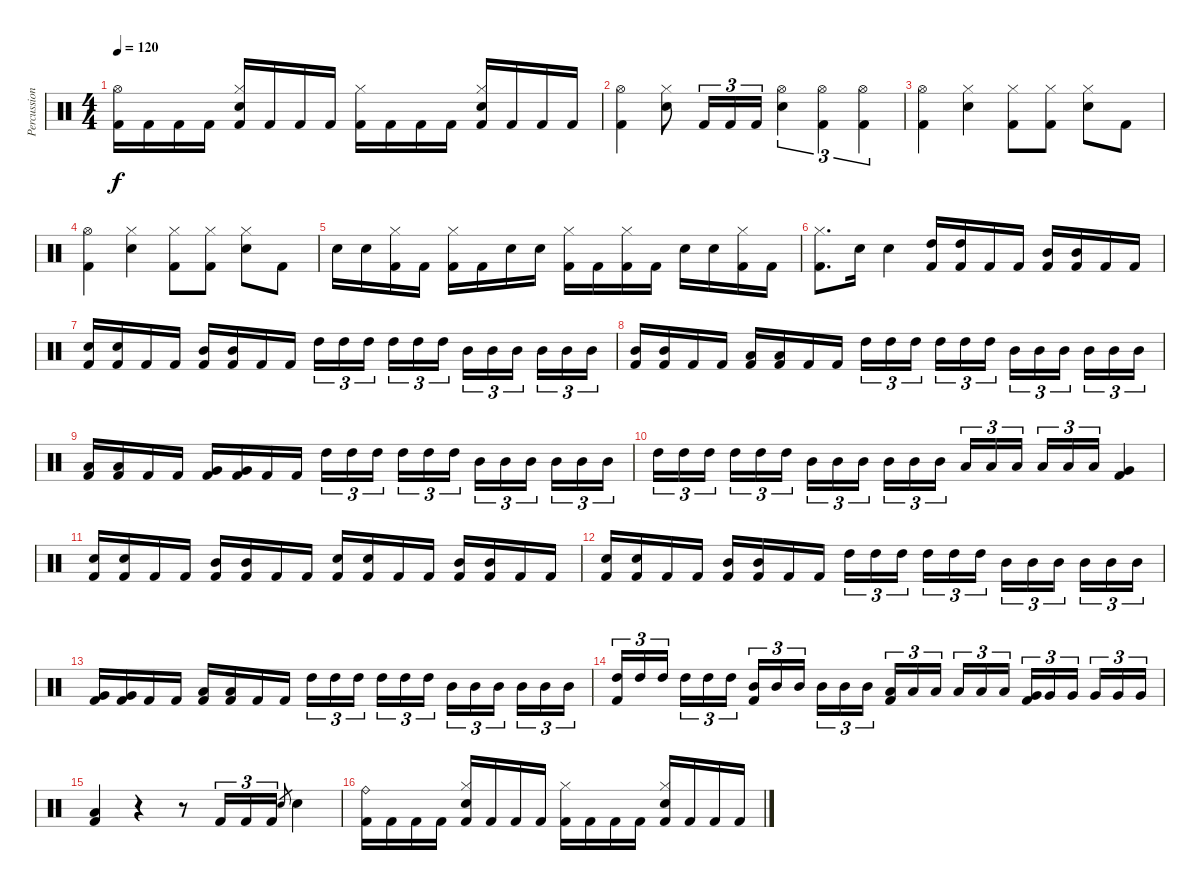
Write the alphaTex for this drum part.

\track ("Percussions" "Percussion") {instrument percussion}
\staff {score}
\articulation defaults
\ts (4 4)
\tempo 120
\clef neutral
\ks c
("Hi-Hat (open)" "Kick (hit) 2").16{dy f} "Kick (hit) 2".16 "Kick (hit) 2".16 "Kick (hit) 2".16 ("Hi-Hat (closed)" "Snare (hit) 2" "Kick (hit) 2").16 "Kick (hit) 2".16 "Kick (hit) 2".16 "Kick (hit) 2".16 ("Hi-Hat (closed)" "Kick (hit) 2").16 "Kick (hit) 2".16 "Kick (hit) 2".16 "Kick (hit) 2".16 ("Hi-Hat (closed)" "Snare (hit) 2" "Kick (hit) 2").16 "Kick (hit) 2".16 "Kick (hit) 2".16 "Kick (hit) 2".16 |
("Hi-Hat (open)" "Kick (hit) 2").4 ("Hi-Hat (closed)" "Snare (hit) 2").8 "Kick (hit) 2".16{tu (3 2)} "Kick (hit) 2".16{tu (3 2)} "Kick (hit) 2".16{tu (3 2)} ("Hi-Hat (open)" "Snare (hit) 2").4{tu (3 2)} ("Hi-Hat (open)" "Kick (hit) 2").4{tu (3 2)} ("Hi-Hat (open)" "Kick (hit) 2").4{tu (3 2)} |
("Hi-Hat (open)" "Kick (hit) 2").4 ("Hi-Hat (closed)" "Snare (hit) 2").4 ("Hi-Hat (closed)" "Kick (hit) 2").8 ("Hi-Hat (closed)" "Kick (hit) 2").8 ("Hi-Hat (closed)" "Snare (hit) 2").8 "Kick (hit) 2".8 |
("Hi-Hat (open)" "Kick (hit) 2").4 ("Hi-Hat (closed)" "Snare (hit) 2").4 ("Hi-Hat (closed)" "Kick (hit) 2").8 ("Hi-Hat (closed)" "Kick (hit) 2").8 ("Hi-Hat (closed)" "Snare (hit) 2").8 "Kick (hit) 2".8 |
"Snare (hit) 2".16 "Snare (hit) 2".16 ("Hi-Hat (closed)" "Kick (hit) 2").16 "Kick (hit) 2".16 ("Hi-Hat (closed)" "Kick (hit) 2").16 "Kick (hit) 2".16 "Snare (hit) 2".16 "Snare (hit) 2".16 ("Hi-Hat (closed)" "Kick (hit) 2").16 "Kick (hit) 2".16 ("Hi-Hat (closed)" "Kick (hit) 2").16 "Kick (hit) 2".16 "Snare (hit) 2".16 "Snare (hit) 2".16 ("Hi-Hat (closed)" "Kick (hit) 2").16 "Kick (hit) 2".16 |
("Hi-Hat (closed)" "Kick (hit) 2").8{d} "Snare (hit) 2".16 "Snare (hit) 2".4 ("High Tom (hit)" "Kick (hit) 2").16 ("High Tom (hit)" "Kick (hit) 2").16 "Kick (hit) 2".16 "Kick (hit) 2".16 ("Mid Tom (hit)" "Kick (hit) 2").16 ("Mid Tom (hit)" "Kick (hit) 2").16 "Kick (hit) 2".16 "Kick (hit) 2".16 |
("Snare (hit) 2" "Kick (hit) 2").16 ("Snare (hit) 2" "Kick (hit) 2").16 "Kick (hit) 2".16 "Kick (hit) 2".16 ("Mid Tom (hit)" "Kick (hit) 2").16 ("Mid Tom (hit)" "Kick (hit) 2").16 "Kick (hit) 2".16 "Kick (hit) 2".16 "High Tom (hit)".16{tu (3 2)} "High Tom (hit)".16{tu (3 2)} "High Tom (hit)".16{tu (3 2)} "High Tom (hit)".16{tu (3 2)} "High Tom (hit)".16{tu (3 2)} "High Tom (hit)".16{tu (3 2)} "Mid Tom (hit)".16{tu (3 2)} "Mid Tom (hit)".16{tu (3 2)} "Mid Tom (hit)".16{tu (3 2)} "Mid Tom (hit)".16{tu (3 2)} "Mid Tom (hit)".16{tu (3 2)} "Mid Tom (hit)".16{tu (3 2)} |
("Mid Tom (hit)" "Kick (hit) 2").16 ("Mid Tom (hit)" "Kick (hit) 2").16 "Kick (hit) 2".16 "Kick (hit) 2".16 ("Low Tom (hit)" "Kick (hit) 2").16 ("Low Tom (hit)" "Kick (hit) 2").16 "Kick (hit) 2".16 "Kick (hit) 2".16 "High Tom (hit)".16{tu (3 2)} "High Tom (hit)".16{tu (3 2)} "High Tom (hit)".16{tu (3 2)} "High Tom (hit)".16{tu (3 2)} "High Tom (hit)".16{tu (3 2)} "High Tom (hit)".16{tu (3 2)} "Mid Tom (hit)".16{tu (3 2)} "Mid Tom (hit)".16{tu (3 2)} "Mid Tom (hit)".16{tu (3 2)} "Mid Tom (hit)".16{tu (3 2)} "Mid Tom (hit)".16{tu (3 2)} "Mid Tom (hit)".16{tu (3 2)} |
("Low Tom (hit)" "Kick (hit) 2").16 ("Low Tom (hit)" "Kick (hit) 2").16 "Kick (hit) 2".16 "Kick (hit) 2".16 ("Very Low Tom (hit)" "Kick (hit) 2").16 ("Very Low Tom (hit)" "Kick (hit) 2").16 "Kick (hit) 2".16 "Kick (hit) 2".16 "High Tom (hit)".16{tu (3 2)} "High Tom (hit)".16{tu (3 2)} "High Tom (hit)".16{tu (3 2)} "High Tom (hit)".16{tu (3 2)} "High Tom (hit)".16{tu (3 2)} "High Tom (hit)".16{tu (3 2)} "Mid Tom (hit)".16{tu (3 2)} "Mid Tom (hit)".16{tu (3 2)} "Mid Tom (hit)".16{tu (3 2)} "Mid Tom (hit)".16{tu (3 2)} "Mid Tom (hit)".16{tu (3 2)} "Mid Tom (hit)".16{tu (3 2)} |
"High Tom (hit)".16{tu (3 2)} "High Tom (hit)".16{tu (3 2)} "High Tom (hit)".16{tu (3 2)} "High Tom (hit)".16{tu (3 2)} "High Tom (hit)".16{tu (3 2)} "High Tom (hit)".16{tu (3 2)} "Mid Tom (hit)".16{tu (3 2)} "Mid Tom (hit)".16{tu (3 2)} "Mid Tom (hit)".16{tu (3 2)} "Mid Tom (hit)".16{tu (3 2)} "Mid Tom (hit)".16{tu (3 2)} "Mid Tom (hit)".16{tu (3 2)} "Low Tom (hit)".16{tu (3 2)} "Low Tom (hit)".16{tu (3 2)} "Low Tom (hit)".16{tu (3 2)} "Low Tom (hit)".16{tu (3 2)} "Low Tom (hit)".16{tu (3 2)} "Low Tom (hit)".16{tu (3 2)} ("Very Low Tom (hit)" "Kick (hit) 2").4 |
("Snare (hit) 2" "Kick (hit) 2").16 ("Snare (hit) 2" "Kick (hit) 2").16 "Kick (hit) 2".16 "Kick (hit) 2".16 ("Mid Tom (hit)" "Kick (hit) 2").16 ("Mid Tom (hit)" "Kick (hit) 2").16 "Kick (hit) 2".16 "Kick (hit) 2".16 ("Snare (hit) 2" "Kick (hit) 2").16 ("Snare (hit) 2" "Kick (hit) 2").16 "Kick (hit) 2".16 "Kick (hit) 2".16 ("Mid Tom (hit)" "Kick (hit) 2").16 ("Mid Tom (hit)" "Kick (hit) 2").16 "Kick (hit) 2".16 "Kick (hit) 2".16 |
("Snare (hit) 2" "Kick (hit) 2").16 ("Snare (hit) 2" "Kick (hit) 2").16 "Kick (hit) 2".16 "Kick (hit) 2".16 ("Mid Tom (hit)" "Kick (hit) 2").16 ("Mid Tom (hit)" "Kick (hit) 2").16 "Kick (hit) 2".16 "Kick (hit) 2".16 "High Tom (hit)".16{tu (3 2)} "High Tom (hit)".16{tu (3 2)} "High Tom (hit)".16{tu (3 2)} "High Tom (hit)".16{tu (3 2)} "High Tom (hit)".16{tu (3 2)} "High Tom (hit)".16{tu (3 2)} "Mid Tom (hit)".16{tu (3 2)} "Mid Tom (hit)".16{tu (3 2)} "Mid Tom (hit)".16{tu (3 2)} "Mid Tom (hit)".16{tu (3 2)} "Mid Tom (hit)".16{tu (3 2)} "Mid Tom (hit)".16{tu (3 2)} |
("Very Low Tom (hit)" "Kick (hit) 2").16 ("Very Low Tom (hit)" "Kick (hit) 2").16 "Kick (hit) 2".16 "Kick (hit) 2".16 ("Low Floor Tom (hit)" "Kick (hit) 2").16 ("Low Floor Tom (hit)" "Kick (hit) 2").16 "Kick (hit) 2".16 "Kick (hit) 2".16 "High Tom (hit)".16{tu (3 2)} "High Tom (hit)".16{tu (3 2)} "High Tom (hit)".16{tu (3 2)} "High Tom (hit)".16{tu (3 2)} "High Tom (hit)".16{tu (3 2)} "High Tom (hit)".16{tu (3 2)} "Mid Tom (hit)".16{tu (3 2)} "Mid Tom (hit)".16{tu (3 2)} "Mid Tom (hit)".16{tu (3 2)} "Mid Tom (hit)".16{tu (3 2)} "Mid Tom (hit)".16{tu (3 2)} "Mid Tom (hit)".16{tu (3 2)} |
("High Tom (hit)" "Kick (hit) 2").16{tu (3 2)} "High Tom (hit)".16{tu (3 2)} "High Tom (hit)".16{tu (3 2)} "High Tom (hit)".16{tu (3 2)} "High Tom (hit)".16{tu (3 2)} "High Tom (hit)".16{tu (3 2)} ("Mid Tom (hit)" "Kick (hit) 2").16{tu (3 2)} "Mid Tom (hit)".16{tu (3 2)} "Mid Tom (hit)".16{tu (3 2)} "Mid Tom (hit)".16{tu (3 2)} "Mid Tom (hit)".16{tu (3 2)} "Mid Tom (hit)".16{tu (3 2)} ("Low Tom (hit)" "Kick (hit) 2").16{tu (3 2)} "Low Tom (hit)".16{tu (3 2)} "Low Tom (hit)".16{tu (3 2)} "Low Tom (hit)".16{tu (3 2)} "Low Tom (hit)".16{tu (3 2)} "Low Tom (hit)".16{tu (3 2)} ("Very Low Tom (hit)" "Kick (hit) 2").16{tu (3 2)} "Very Low Tom (hit)".16{tu (3 2)} "Very Low Tom (hit)".16{tu (3 2)} "Very Low Tom (hit)".16{tu (3 2)} "Very Low Tom (hit)".16{tu (3 2)} "Very Low Tom (hit)".16{tu (3 2)} |
("Low Floor Tom (hit)" "Kick (hit) 2").4 r.4 r.8 "Kick (hit) 2".16{tu (3 2)} "Kick (hit) 2".16{tu (3 2)} "Kick (hit) 2".16{tu (3 2)} "Snare (hit) 2".8{gr} "Snare (hit) 2".4 |
("Ride (bell)" "Kick (hit) 2").16 "Kick (hit) 2".16 "Kick (hit) 2".16 "Kick (hit) 2".16 ("Hi-Hat (closed)" "Snare (hit) 2" "Kick (hit) 2").16 "Kick (hit) 2".16 "Kick (hit) 2".16 "Kick (hit) 2".16 ("Hi-Hat (closed)" "Kick (hit) 2").16 "Kick (hit) 2".16 "Kick (hit) 2".16 "Kick (hit) 2".16 ("Hi-Hat (closed)" "Snare (hit) 2" "Kick (hit) 2").16 "Kick (hit) 2".16 "Kick (hit) 2".16 "Kick (hit) 2".16
